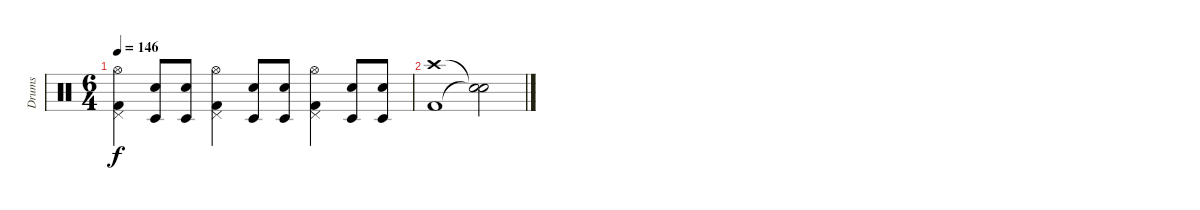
\track ("Drums" "Drums") {instrument percussion}
\staff {score}
\articulation defaults
\ts (6 4)
\tempo 146
\clef neutral
\ks c
("Pedal Hi-Hat (hit)" "Kick (hit) 2" "Hi-Hat (open)").4{dy f} ("Timbale low (hit)" "Electric Snare (hit)").8 ("Timbale low (hit)" "Electric Snare (hit)").8 ("Pedal Hi-Hat (hit)" "Kick (hit) 2" "Hi-Hat (open)").4 ("Timbale low (hit)" "Electric Snare (hit)").8 ("Timbale low (hit)" "Electric Snare (hit)").8 ("Pedal Hi-Hat (hit)" "Kick (hit) 2" "Hi-Hat (open)").4 ("Timbale low (hit)" "Electric Snare (hit)").8 ("Timbale low (hit)" "Electric Snare (hit)").8 |
("Crash high (hit)" "Kick (hit) 2").1 ("Snare (hit)"{t} "Snare (hit)"{t}).2
